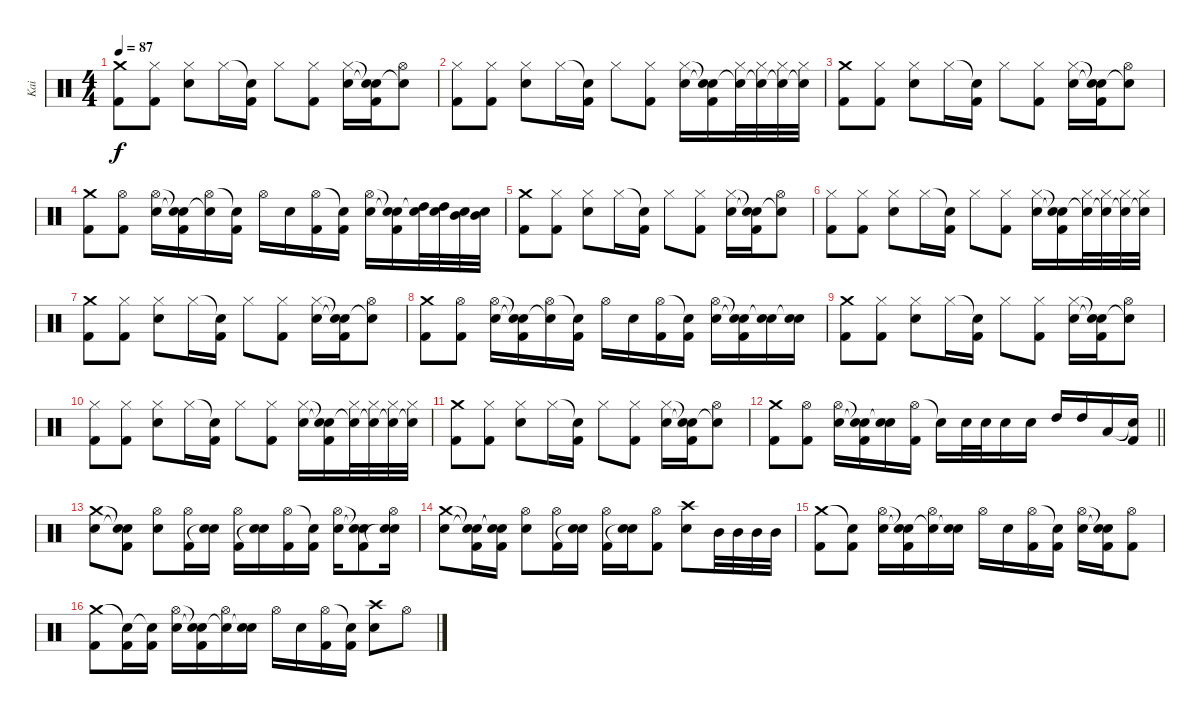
\track ("Kai" "Kai") {instrument percussion}
\staff {score}
\articulation defaults
\ts (4 4)
\tempo 87
\clef neutral
\ks c
("Crash medium (hit)" "Kick (hit) 2").8{dy f} ("Hi-Hat (closed)" "Kick (hit) 2").8 ("Hi-Hat (closed)" "Snare (hit) 2").8 "Hi-Hat (closed)".16 ("Snare (hit)"{t} "Kick (hit) 2").16 "Hi-Hat (closed)".8 ("Hi-Hat (closed)" "Kick (hit) 2").8 ("Hi-Hat (closed)" "Snare (hit) 2").16 ("Snare (hit)"{t} "Snare (hit)"{t} "Kick (hit) 2").16 ("Hi-Hat (open)" "Snare (hit)"{t}).8 |
("Hi-Hat (closed)" "Kick (hit) 2").8 ("Hi-Hat (closed)" "Kick (hit) 2").8 ("Hi-Hat (closed)" "Snare (hit) 2").8 "Hi-Hat (closed)".16 ("Snare (hit)"{t} "Kick (hit) 2").16 "Hi-Hat (closed)".8 ("Hi-Hat (closed)" "Kick (hit) 2").8 ("Hi-Hat (closed)" "Snare (hit) 2").16 ("Snare (hit)"{t} "Snare (hit)"{t} "Kick (hit) 2").16 ("Hi-Hat (closed)" "Snare (hit)"{t}).32 ("Hi-Hat (closed)" "Snare (hit)"{t}).32 ("Hi-Hat (closed)" "Snare (hit)"{t}).32 ("Hi-Hat (closed)" "Snare (hit)"{t}).32 |
("Crash medium (hit)" "Kick (hit) 2").8 ("Hi-Hat (closed)" "Kick (hit) 2").8 ("Hi-Hat (closed)" "Snare (hit) 2").8 "Hi-Hat (closed)".16 ("Snare (hit)"{t} "Kick (hit) 2").16 "Hi-Hat (closed)".8 ("Hi-Hat (closed)" "Kick (hit) 2").8 ("Hi-Hat (closed)" "Snare (hit) 2").16 ("Snare (hit)"{t} "Snare (hit)"{t} "Kick (hit) 2").16 ("Hi-Hat (open)" "Snare (hit)"{t}).8 |
("Crash medium (hit)" "Kick (hit) 2").8 ("Hi-Hat (open)" "Kick (hit) 2").8 ("Hi-Hat (open)" "Snare (hit) 2").16 ("Snare (hit)"{t} "Snare (hit)"{t} "Kick (hit) 2").16 ("Hi-Hat (open)" "Snare (hit)"{t}).16 ("Snare (hit)"{t} "Kick (hit) 2").16 "Hi-Hat (open)".16 "Snare (hit) 2".16 ("Hi-Hat (open)" "Kick (hit) 2").16 ("Snare (hit)"{t} "Kick (hit) 2").16 ("Hi-Hat (open)" "Snare (hit) 2").16 ("Snare (hit)"{t} "Snare (hit)"{t} "Kick (hit) 2").16 ("High Tom (hit)" "Snare (hit)"{t}).32 ("High Tom (hit)" "Snare (hit)"{t}).32 ("Mid Tom (hit)" "Snare (hit)"{t}).32 ("Mid Tom (hit)" "Snare (hit)"{t}).32 |
("Crash medium (hit)" "Kick (hit) 2").8 ("Hi-Hat (closed)" "Kick (hit) 2").8 ("Hi-Hat (closed)" "Snare (hit) 2").8 "Hi-Hat (closed)".16 ("Snare (hit)"{t} "Kick (hit) 2").16 "Hi-Hat (closed)".8 ("Hi-Hat (closed)" "Kick (hit) 2").8 ("Hi-Hat (closed)" "Snare (hit) 2").16 ("Snare (hit)"{t} "Snare (hit)"{t} "Kick (hit) 2").16 ("Hi-Hat (open)" "Snare (hit)"{t}).8 |
("Hi-Hat (closed)" "Kick (hit) 2").8 ("Hi-Hat (closed)" "Kick (hit) 2").8 ("Hi-Hat (closed)" "Snare (hit) 2").8 "Hi-Hat (closed)".16 ("Snare (hit)"{t} "Kick (hit) 2").16 "Hi-Hat (closed)".8 ("Hi-Hat (closed)" "Kick (hit) 2").8 ("Hi-Hat (closed)" "Snare (hit) 2").16 ("Snare (hit)"{t} "Snare (hit)"{t} "Kick (hit) 2").16 ("Hi-Hat (closed)" "Snare (hit)"{t}).32 ("Hi-Hat (closed)" "Snare (hit)"{t}).32 ("Hi-Hat (closed)" "Snare (hit)"{t}).32 ("Hi-Hat (closed)" "Snare (hit)"{t}).32 |
("Crash medium (hit)" "Kick (hit) 2").8 ("Hi-Hat (closed)" "Kick (hit) 2").8 ("Hi-Hat (closed)" "Snare (hit) 2").8 "Hi-Hat (closed)".16 ("Snare (hit)"{t} "Kick (hit) 2").16 "Hi-Hat (closed)".8 ("Hi-Hat (closed)" "Kick (hit) 2").8 ("Hi-Hat (closed)" "Snare (hit) 2").16 ("Snare (hit)"{t} "Snare (hit)"{t} "Kick (hit) 2").16 ("Hi-Hat (open)" "Snare (hit)"{t}).8 |
("Crash medium (hit)" "Kick (hit) 2").8 ("Hi-Hat (open)" "Kick (hit) 2").8 ("Hi-Hat (open)" "Snare (hit) 2").16 ("Snare (hit)"{t} "Snare (hit)"{t} "Kick (hit) 2").16 ("Hi-Hat (open)" "Snare (hit)"{t}).16 ("Snare (hit)"{t} "Kick (hit) 2").16 "Hi-Hat (open)".16 "Snare (hit) 2".16 ("Hi-Hat (open)" "Kick (hit) 2").16 ("Snare (hit)"{t} "Kick (hit) 2").16 ("Hi-Hat (open)" "Snare (hit) 2").16 ("Snare (hit)"{t} "Snare (hit)"{t} "Kick (hit) 2").16 ("Snare (hit) 2" "Snare (hit)"{t}).16 ("Snare (hit) 2" "Snare (hit)"{t}).16 |
("Crash medium (hit)" "Kick (hit) 2").8 ("Hi-Hat (closed)" "Kick (hit) 2").8 ("Hi-Hat (closed)" "Snare (hit) 2").8 "Hi-Hat (closed)".16 ("Snare (hit)"{t} "Kick (hit) 2").16 "Hi-Hat (closed)".8 ("Hi-Hat (closed)" "Kick (hit) 2").8 ("Hi-Hat (closed)" "Snare (hit) 2").16 ("Snare (hit)"{t} "Snare (hit)"{t} "Kick (hit) 2").16 ("Hi-Hat (open)" "Snare (hit)"{t}).8 |
("Hi-Hat (closed)" "Kick (hit) 2").8 ("Hi-Hat (closed)" "Kick (hit) 2").8 ("Hi-Hat (closed)" "Snare (hit) 2").8 "Hi-Hat (closed)".16 ("Snare (hit)"{t} "Kick (hit) 2").16 "Hi-Hat (closed)".8 ("Hi-Hat (closed)" "Kick (hit) 2").8 ("Hi-Hat (closed)" "Snare (hit) 2").16 ("Snare (hit)"{t} "Snare (hit)"{t} "Kick (hit) 2").16 ("Hi-Hat (closed)" "Snare (hit)"{t}).32 ("Hi-Hat (closed)" "Snare (hit)"{t}).32 ("Hi-Hat (closed)" "Snare (hit)"{t}).32 ("Hi-Hat (closed)" "Snare (hit)"{t}).32 |
("Crash medium (hit)" "Kick (hit) 2").8 ("Hi-Hat (closed)" "Kick (hit) 2").8 ("Hi-Hat (closed)" "Snare (hit) 2").8 "Hi-Hat (closed)".16 ("Snare (hit)"{t} "Kick (hit) 2").16 "Hi-Hat (closed)".8 ("Hi-Hat (closed)" "Kick (hit) 2").8 ("Hi-Hat (closed)" "Snare (hit) 2").16 ("Snare (hit)"{t} "Snare (hit)"{t} "Kick (hit) 2").16 ("Hi-Hat (open)" "Snare (hit)"{t}).8 |
\barLineRight lightlight
("Crash medium (hit)" "Kick (hit) 2").8 ("Hi-Hat (open)" "Kick (hit) 2").8 ("Hi-Hat (open)" "Snare (hit) 2").16 ("Snare (hit)"{t} "Snare (hit)"{t} "Kick (hit) 2").16 ("Snare (hit) 2" "Snare (hit)"{t}).16 ("Hi-Hat (open)" "Kick (hit) 2").16 "Snare (hit)"{t}.16 "Snare (hit) 2".32 "Snare (hit) 2".32 "Snare (hit) 2".16 "Snare (hit) 2".16 "High Tom (hit)".16 "High Tom (hit)".16 "Low Tom (hit)".16 ("Snare (hit)"{t} "Kick (hit) 2").16 |
("Crash medium (hit)" "Snare (hit) 2").8 ("Snare (hit)"{t} "Snare (hit)"{t} "Kick (hit) 2").8 ("Hi-Hat (open)" "Snare (hit) 2").8 ("Hi-Hat (open)" "Kick (hit) 2").16 ("Snare (hit) 2" "Snare (hit)"{t}).16 ("Hi-Hat (open)" "Kick (hit) 2").16 ("Snare (hit) 2" "Snare (hit)"{t}).16 ("Hi-Hat (open)" "Kick (hit) 2").16 ("Snare (hit)"{t} "Kick (hit) 2").16 ("Hi-Hat (open)" "Snare (hit) 2").16 ("Snare (hit)"{t} "Snare (hit)"{t} "Kick (hit) 2").8 ("Hi-Hat (open)" "Snare (hit) 2" "Snare (hit)"{t}).16 |
("Crash medium (hit)" "Snare (hit) 2").8 ("Snare (hit)"{t} "Snare (hit)"{t} "Kick (hit) 2").16 ("Snare (hit)"{t} "Snare (hit)"{t} "Kick (hit) 2").16 ("Hi-Hat (open)" "Snare (hit) 2").8 ("Hi-Hat (open)" "Kick (hit) 2").16 ("Snare (hit) 2" "Snare (hit)"{t}).16 ("Hi-Hat (open)" "Kick (hit) 2").16 ("Snare (hit) 2" "Snare (hit)"{t}).16 ("Hi-Hat (open)" "Kick (hit) 2").8 ("Crash high (hit)" "Snare (hit) 2").8 "Mid Tom (hit)".32 "Mid Tom (hit)".32 "Mid Tom (hit)".32 "Mid Tom (hit)".32 |
("Crash medium (hit)" "Kick (hit) 2").8 ("Snare (hit)"{t} "Kick (hit) 2").8 ("Hi-Hat (open)" "Snare (hit) 2").16 ("Snare (hit)"{t} "Snare (hit)"{t} "Kick (hit) 2").16 ("Hi-Hat (open)" "Snare (hit)"{t}).16 ("Snare (hit) 2" "Snare (hit)"{t}).16 "Hi-Hat (open)".16 "Snare (hit) 2".16 ("Hi-Hat (open)" "Kick (hit) 2").16 ("Snare (hit)"{t} "Kick (hit) 2").16 ("Hi-Hat (open)" "Snare (hit) 2").16 ("Snare (hit)"{t} "Snare (hit)"{t} "Kick (hit) 2").16 ("Hi-Hat (open)" "Kick (hit) 2").8 |
("Crash medium (hit)" "Kick (hit) 2").8 ("Snare (hit)"{t} "Kick (hit) 2").16 ("Snare (hit)"{t} "Kick (hit) 2").16 ("Hi-Hat (open)" "Snare (hit) 2").16 ("Snare (hit)"{t} "Snare (hit)"{t} "Kick (hit) 2").16 ("Hi-Hat (open)" "Snare (hit)"{t}).16 ("Snare (hit) 2" "Snare (hit)"{t}).16 "Hi-Hat (open)".16 "Snare (hit) 2".16 ("Hi-Hat (open)" "Kick (hit) 2").16 ("Snare (hit)"{t} "Kick (hit) 2").16 ("Crash high (hit)" "Snare (hit) 2").8 "Hi-Hat (open)".8
